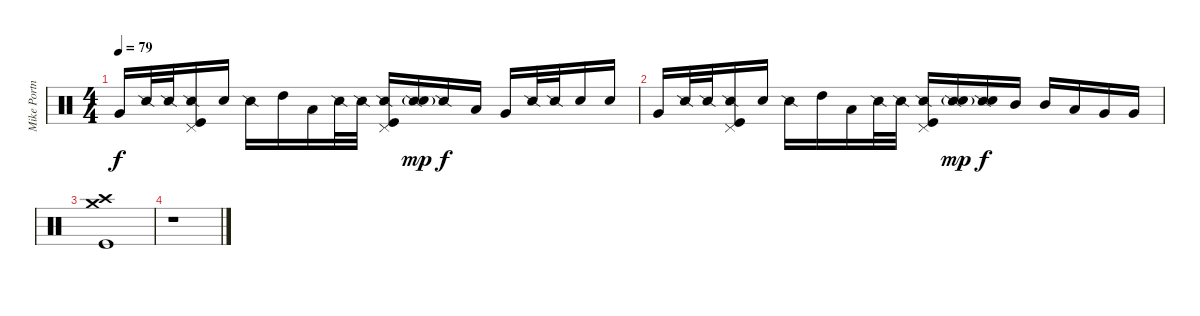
\track ("Mike Portnoy" "Mike Portn") {instrument percussion}
\staff {score}
\articulation defaults
\ts (4 4)
\tempo 79
\clef neutral
\ks c "Very Low Tom (hit)".16{dy f} "Snare (side stick) 2".32 "Snare (side stick) 2".32
("Snare (side stick) 2" "Pedal Hi-Hat (hit)" "Kick (hit)").16 "Electric Snare (hit)".16 "Snare (side stick) 2".16 "High Tom (hit)".16 "Low Tom (hit)".16 "Snare (side stick) 2".32 "Snare (side stick) 2".32 ("Snare (side stick) 2" "Pedal Hi-Hat (hit)" "Kick (hit)").16 ("Snare (side stick) 2" "Electric Snare (hit)"{g}).16{dy mp} "Snare (side stick) 2".16{dy f} "Low Tom (hit)".16 "Very Low Tom (hit)".16 "Snare (side stick) 2".32 "Snare (side stick) 2".32 "Electric Snare (hit)".16 "Electric Snare (hit)".16 |
"Very Low Tom (hit)".16 "Snare (side stick) 2".32 "Snare (side stick) 2".32 ("Snare (side stick) 2" "Pedal Hi-Hat (hit)" "Kick (hit)").16 "Electric Snare (hit)".16 "Snare (side stick) 2".16 "High Tom (hit)".16 "Low Tom (hit)".16 "Snare (side stick) 2".32 "Snare (side stick) 2".32 ("Snare (side stick) 2" "Pedal Hi-Hat (hit)" "Kick (hit)").16 ("Snare (side stick) 2" "Electric Snare (hit)"{g}).16{dy mp} ("Snare (side stick) 2" "Electric Snare (hit)").16{dy f} "Mid Tom (hit)".16 "Mid Tom (hit)".16 "Low Tom (hit)".16 "Very Low Tom (hit)".16 "Very Low Tom (hit)".16 |
("Crash high (hit)" "Crash medium (hit)" "Kick (hit)").1 |
r.1
